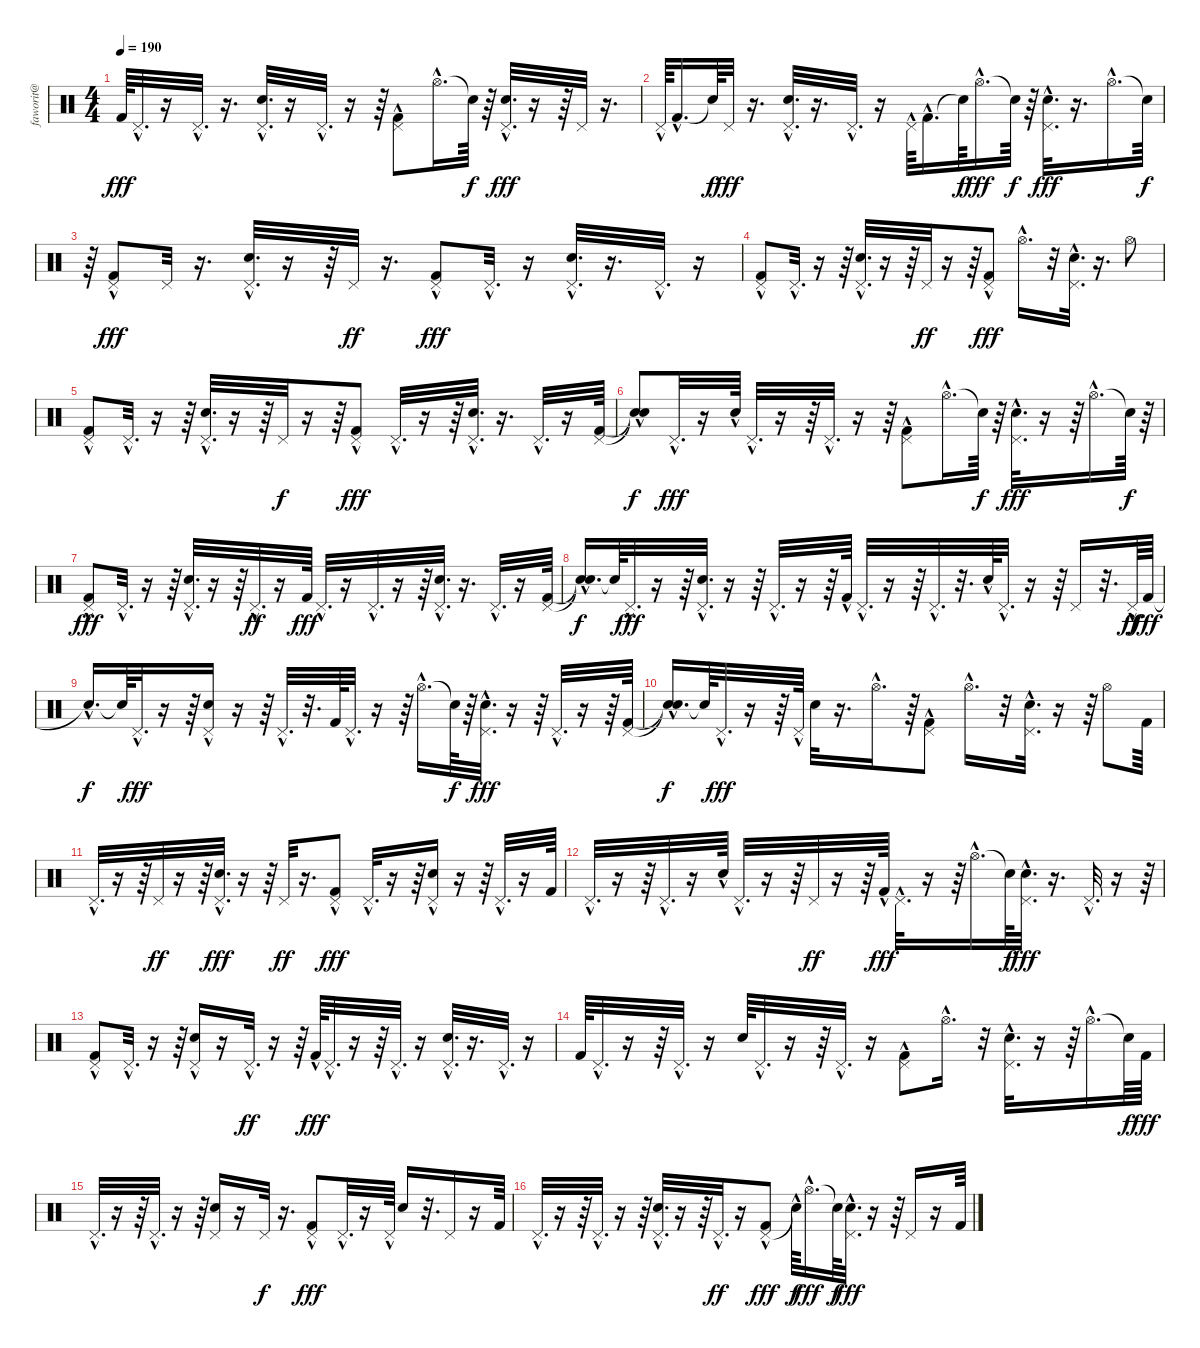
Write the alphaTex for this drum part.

\track ("faworit@" "faworit@") {instrument percussion}
\staff {score}
\articulation defaults
\ts (4 4)
\tempo 190
\clef neutral
\ks c "Kick (hit) 2".64{dy fff} "Pedal Hi-Hat (hit)"{hac}.32{d}
r.16 "Pedal Hi-Hat (hit)"{hac}.32{d} r.16{d} ("Pedal Hi-Hat (hit)"{hac} "Snare (hit) 2"{hac}).32{d} r.16 "Pedal Hi-Hat (hit)"{hac}.32{d} r.16 r.64 ("Pedal Hi-Hat (hit)"{hac} "Kick (hit) 2"{hac}).8 "Hi-Hat (open)"{hac}.16{d} "Snare (hit)"{t}.64{dy f} r.64 ("Snare (hit) 2"{hac} "Pedal Hi-Hat (hit)"{hac}).32{d dy fff} r.16 r.64 "Pedal Hi-Hat (hit)".32 r.16{d} |
"Pedal Hi-Hat (hit)"{hac}.64 "Kick (hit) 2"{hac}.16{d} "Snare (hit)"{t}.64{dy f} "Pedal Hi-Hat (hit)".32{dy fff} r.16{d} ("Snare (hit) 2"{hac} "Pedal Hi-Hat (hit)"{hac}).32{d} r.16{d} "Pedal Hi-Hat (hit)"{hac}.32{d} r.16 "Pedal Hi-Hat (hit)"{hac}.64 "Kick (hit) 2"{hac}.16{d} "Snare (hit)"{t}.64{dy f} "Hi-Hat (open)"{hac}.16{d dy fff} "Snare (hit)"{t}.64{dy f} r.64 ("Snare (hit) 2"{hac} "Pedal Hi-Hat (hit)"{hac}).32{d dy fff} r.16{d} "Hi-Hat (open)"{hac}.16{d} "Snare (hit)"{t}.64{dy f} |
r.64 ("Pedal Hi-Hat (hit)"{hac} "Kick (hit) 2").8{dy fff} "Pedal Hi-Hat (hit)".32 r.16{d} ("Pedal Hi-Hat (hit)"{hac} "Snare (hit) 2"{hac}).32{d} r.16 r.64 "Pedal Hi-Hat (hit)".32{dy ff} r.16{d} ("Kick (hit) 2"{hac} "Pedal Hi-Hat (hit)"{hac}).8{dy fff} "Pedal Hi-Hat (hit)"{hac}.32{d} r.16 ("Snare (hit) 2"{hac} "Pedal Hi-Hat (hit)"{hac}).32{d} r.16{d} "Pedal Hi-Hat (hit)"{hac}.32{d} r.16 |
("Kick (hit) 2" "Pedal Hi-Hat (hit)"{hac}).8 "Pedal Hi-Hat (hit)"{hac}.32{d} r.16 r.64 ("Pedal Hi-Hat (hit)"{hac} "Snare (hit) 2"{hac}).32{d} r.16 r.64 "Pedal Hi-Hat (hit)".32{dy ff} r.16 r.64 ("Pedal Hi-Hat (hit)"{hac} "Kick (hit) 2"{hac}).8{dy fff} "Hi-Hat (open)"{hac}.16{d} r.32 ("Snare (hit) 2"{hac} "Pedal Hi-Hat (hit)"{hac}).32{d} r.16{d} "Hi-Hat (open)".8 |
("Pedal Hi-Hat (hit)"{hac} "Kick (hit) 2"{hac}).8 "Pedal Hi-Hat (hit)"{hac}.32{d} r.16 r.64 ("Snare (hit) 2"{hac} "Pedal Hi-Hat (hit)"{hac}).32{d} r.16 r.64 "Pedal Hi-Hat (hit)".32{dy f} r.16 r.64 ("Kick (hit) 2" "Pedal Hi-Hat (hit)"{hac}).8{dy fff} "Pedal Hi-Hat (hit)"{hac}.32{d} r.16 r.64 ("Snare (hit) 2"{hac} "Pedal Hi-Hat (hit)"{hac}).32{d} r.16{d} "Pedal Hi-Hat (hit)"{hac}.32{d} r.16 ("Kick (hit) 2" "Pedal Hi-Hat (hit)").64 |
("Snare (hit)"{hac t} "Snare (hit)"{t}).8{dy f} "Pedal Hi-Hat (hit)"{hac}.32{d dy fff} r.16 "Snare (hit) 2"{hac}.64 "Pedal Hi-Hat (hit)"{hac}.32{d} r.16 r.64 "Pedal Hi-Hat (hit)"{hac}.32{d} r.16 r.64 ("Pedal Hi-Hat (hit)"{hac} "Kick (hit) 2"{hac}).8 "Hi-Hat (open)"{hac}.16{d} "Snare (hit)"{t}.64{dy f} r.64 ("Snare (hit) 2" "Pedal Hi-Hat (hit)"{hac}).32{d dy fff} r.16 r.64 "Hi-Hat (open)"{hac}.16{d} "Snare (hit)"{t}.64{dy f} r.64 |
("Pedal Hi-Hat (hit)"{hac} "Kick (hit) 2").8{dy fff} "Pedal Hi-Hat (hit)"{hac}.32{d} r.16 r.64 ("Pedal Hi-Hat (hit)"{hac} "Snare (hit) 2"{hac}).32{d} r.16 r.64 "Pedal Hi-Hat (hit)"{hac}.32{d dy ff} r.16 "Kick (hit) 2".64{dy fff} "Pedal Hi-Hat (hit)"{hac}.32{d} r.16 "Pedal Hi-Hat (hit)"{hac}.32{d} r.16 r.64 ("Snare (hit) 2"{hac} "Pedal Hi-Hat (hit)"{hac}).32{d} r.16{d} "Pedal Hi-Hat (hit)"{hac}.32{d} r.16 ("Kick (hit) 2" "Pedal Hi-Hat (hit)").64 |
("Snare (hit)"{hac t} "Snare (hit)"{t}).16{d dy f} "Snare (hit)"{t}.64 "Pedal Hi-Hat (hit)"{hac}.32{d dy fff} r.16 r.64 ("Pedal Hi-Hat (hit)"{hac} "Snare (hit) 2"{hac}).32{d} r.16 r.64 "Pedal Hi-Hat (hit)"{hac}.32{d} r.16 r.64 "Kick (hit) 2"{hac}.64 "Pedal Hi-Hat (hit)"{hac}.32{d} r.16 r.64 "Pedal Hi-Hat (hit)"{hac}.32{d} r.32{d} "Snare (hit) 2"{hac}.64 "Pedal Hi-Hat (hit)"{hac}.32{d} r.16 r.64 "Pedal Hi-Hat (hit)".16 r.32{d} "Pedal Hi-Hat (hit)"{hac}.64{dy ff} "Kick (hit) 2".64{dy fff} |
"Snare (hit)"{hac t}.16{d dy f} "Snare (hit)"{t}.64 "Pedal Hi-Hat (hit)"{hac}.32{d dy fff} r.16 r.64 ("Pedal Hi-Hat (hit)" "Snare (hit) 2"{hac}).16 r.16 r.64 "Pedal Hi-Hat (hit)"{hac}.32{d} r.32{d} "Kick (hit) 2".64 "Pedal Hi-Hat (hit)"{hac}.32{d} r.16 r.64 "Hi-Hat (open)"{hac}.16{d} "Snare (hit)"{t}.64{dy f} r.64 ("Snare (hit) 2"{hac} "Pedal Hi-Hat (hit)"{hac}).32{d dy fff} r.16 r.64 "Pedal Hi-Hat (hit)"{hac}.32{d} r.16 r.64 ("Pedal Hi-Hat (hit)" "Kick (hit) 2").64 |
("Snare (hit)"{t} "Snare (hit)"{hac t}).16{d dy f} "Snare (hit)"{t}.64 "Pedal Hi-Hat (hit)"{hac}.32{d dy fff} r.16 r.64 "Pedal Hi-Hat (hit)"{hac}.64 "Snare (hit) 2".32 r.16{d} "Hi-Hat (open)"{hac}.16{d} r.64 ("Kick (hit) 2"{hac} "Pedal Hi-Hat (hit)").8 "Hi-Hat (open)"{hac}.16{d} r.32 ("Snare (hit) 2"{hac} "Pedal Hi-Hat (hit)"{hac}).32{d} r.16 r.64 "Hi-Hat (open)".8 "Kick (hit) 2".64 |
"Pedal Hi-Hat (hit)"{hac}.32{d} r.16 r.64 "Pedal Hi-Hat (hit)".32{dy ff} r.16 r.64 ("Snare (hit) 2"{hac} "Pedal Hi-Hat (hit)"{hac}).32{d dy fff} r.16 r.64 "Pedal Hi-Hat (hit)".32{dy ff} r.16{d} ("Kick (hit) 2" "Pedal Hi-Hat (hit)"{hac}).8{dy fff} "Pedal Hi-Hat (hit)"{hac}.32{d} r.16 r.64 ("Snare (hit) 2"{hac} "Pedal Hi-Hat (hit)").16 r.16 r.64 "Pedal Hi-Hat (hit)"{hac}.32{d} r.16 "Kick (hit) 2".64 |
"Pedal Hi-Hat (hit)"{hac}.32{d} r.16 r.64 "Pedal Hi-Hat (hit)"{hac}.32{d} r.16 "Snare (hit) 2"{hac}.64 "Pedal Hi-Hat (hit)"{hac}.32{d} r.16 r.64 "Pedal Hi-Hat (hit)".32{dy ff} r.16 r.64 "Kick (hit) 2"{hac}.64{dy fff} "Pedal Hi-Hat (hit)"{hac}.32{d} r.16 r.64 "Hi-Hat (open)"{hac}.16{d} "Snare (hit)"{t}.64{dy f} ("Snare (hit) 2"{hac} "Pedal Hi-Hat (hit)"{hac}).32{d dy fff} r.16{d} "Pedal Hi-Hat (hit)"{hac}.32{d} r.16 r.64 |
("Pedal Hi-Hat (hit)"{hac} "Kick (hit) 2").8 "Pedal Hi-Hat (hit)"{hac}.32{d} r.16 r.64 ("Snare (hit) 2" "Pedal Hi-Hat (hit)"{hac}).16 r.16 "Pedal Hi-Hat (hit)"{hac}.32{d dy ff} r.16 r.64 "Kick (hit) 2"{hac}.64{dy fff} "Pedal Hi-Hat (hit)"{hac}.32{d} r.16 r.64 "Pedal Hi-Hat (hit)"{hac}.32{d} r.16 ("Snare (hit) 2"{hac} "Pedal Hi-Hat (hit)"{hac}).32{d} r.16{d} "Pedal Hi-Hat (hit)"{hac}.32{d} r.16 |
"Kick (hit) 2".64 "Pedal Hi-Hat (hit)"{hac}.32{d} r.16 r.64 "Pedal Hi-Hat (hit)"{hac}.32{d} r.16 "Snare (hit) 2".64 "Pedal Hi-Hat (hit)"{hac}.32{d} r.16 r.64 "Pedal Hi-Hat (hit)"{hac}.32{d} r.16 ("Pedal Hi-Hat (hit)"{hac} "Kick (hit) 2"{hac}).8 "Hi-Hat (open)"{hac}.16{d} r.32 ("Snare (hit) 2"{hac} "Pedal Hi-Hat (hit)"{hac}).32{d} r.16 r.64 "Hi-Hat (open)"{hac}.16{d} "Snare (hit)"{t}.64{dy f} "Kick (hit) 2".64{dy fff} |
"Pedal Hi-Hat (hit)"{hac}.32{d} r.16 r.64 "Pedal Hi-Hat (hit)"{hac}.32{d} r.16 r.64 ("Snare (hit) 2" "Pedal Hi-Hat (hit)").16 r.16 "Pedal Hi-Hat (hit)".32{dy f} r.16{d} ("Kick (hit) 2" "Pedal Hi-Hat (hit)"{hac}).8{dy fff} "Pedal Hi-Hat (hit)"{hac}.32{d} r.16 "Pedal Hi-Hat (hit)"{hac}.64 "Snare (hit) 2".16 r.32{d} "Pedal Hi-Hat (hit)".16 r.16 "Kick (hit) 2".64 |
"Pedal Hi-Hat (hit)"{hac}.32{d} r.16 r.64 "Pedal Hi-Hat (hit)"{hac}.32{d} r.16 r.64 ("Pedal Hi-Hat (hit)"{hac} "Snare (hit) 2"{hac}).32{d} r.16 r.64 "Pedal Hi-Hat (hit)"{hac}.32{d dy ff} r.16 ("Pedal Hi-Hat (hit)"{hac} "Kick (hit) 2").8{dy fff} "Snare (hit)"{hac t}.64{dy f} "Hi-Hat (open)"{hac}.16{d dy fff} "Snare (hit)"{t}.64{dy f} ("Snare (hit) 2"{hac} "Pedal Hi-Hat (hit)"{hac}).32{d dy fff} r.16 r.64 "Pedal Hi-Hat (hit)".16 r.16 "Kick (hit) 2".64
